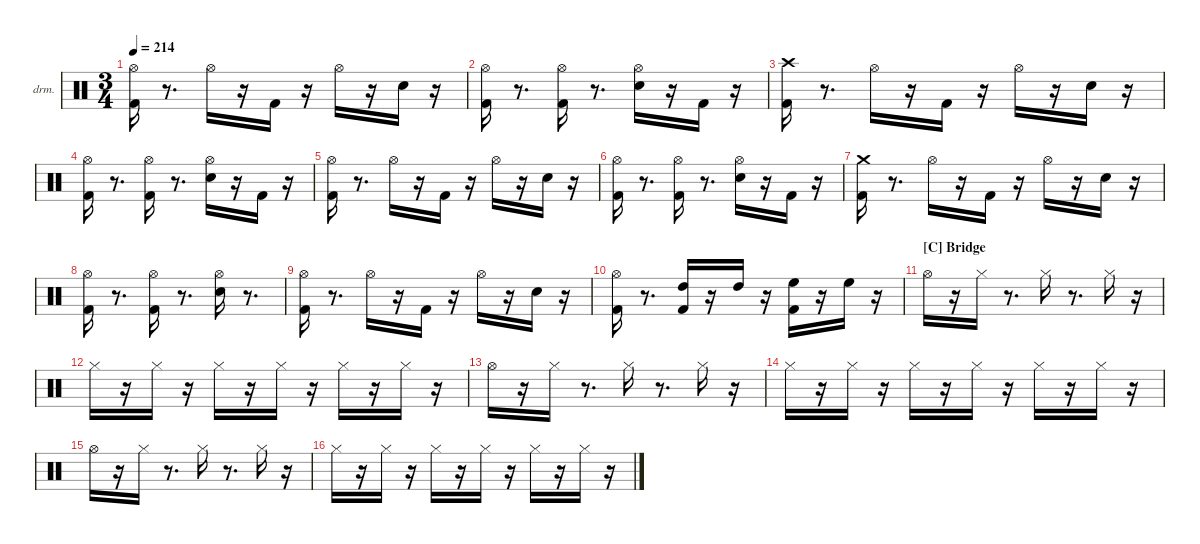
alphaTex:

\hideDynamics
\bracketExtendMode nobrackets
\firstSystemTrackNameOrientation horizontal
\otherSystemsTrackNameOrientation horizontal
\track ("EZdrummer 3" "drm.") {instrument percussion}
\staff {score}
\articulation defaults
\ts (3 4)
\tempo 214
\clef neutral
\ks aminor
("Kick (hit) 2" "Hi-Hat (open)"{acc #}).16{dy fff} r.8{d} "Hi-Hat (open)"{acc #}.16{dy mf} r.16 "Kick (hit) 2".16{dy ff} r.16 "Hi-Hat (open)"{acc #}.16{dy f} r.16 "Snare (hit) 2".16{dy ff} r.16 |
("Kick (hit) 2" "Hi-Hat (open)"{acc #}).16{dy fff} r.8{d} ("Kick (hit) 2" "Hi-Hat (open)"{acc #}).16{dy ff} r.8{d} ("Snare (hit) 2" "Hi-Hat (open)"{acc #}).16{dy f} r.16 "Kick (hit) 2".16{dy mp} r.16 |
("Kick (hit) 2" "Crash high (hit)"{acc #}).16{dy fff} r.8{d} "Hi-Hat (open)"{acc #}.16{dy mf} r.16 "Kick (hit) 2".16{dy ff} r.16 "Hi-Hat (open)"{acc #}.16{dy f} r.16 "Snare (hit) 2".16{dy ff} r.16 |
("Kick (hit) 2" "Hi-Hat (open)"{acc #}).16{dy fff} r.8{d} ("Kick (hit) 2" "Hi-Hat (open)"{acc #}).16{dy mf} r.8{d} ("Snare (hit) 2" "Hi-Hat (open)"{acc #}).16{dy f} r.16 "Kick (hit) 2".16{dy mp} r.16 |
("Kick (hit) 2" "Hi-Hat (open)"{acc #}).16{dy fff} r.8{d} "Hi-Hat (open)"{acc #}.16{dy mf} r.16 "Kick (hit) 2".16{dy ff} r.16 "Hi-Hat (open)"{acc #}.16{dy f} r.16 "Snare (hit) 2".16{dy ff} r.16 |
("Kick (hit) 2" "Hi-Hat (open)"{acc #}).16{dy fff} r.8{d} ("Kick (hit) 2" "Hi-Hat (open)"{acc #}).16{dy ff} r.8{d} ("Snare (hit) 2" "Hi-Hat (open)"{acc #}).16{dy f} r.16 "Kick (hit) 2".16{dy mp} r.16 |
("Kick (hit) 2" "Crash medium (hit)").16{dy fff} r.8{d} "Hi-Hat (open)"{acc #}.16{dy mf} r.16 "Kick (hit) 2".16{dy f} r.16 "Hi-Hat (open)"{acc #}.16 r.16 "Snare (hit) 2".16{dy ff} r.16 |
("Kick (hit) 2" "Hi-Hat (open)"{acc #}).16{dy fff} r.8{d} ("Kick (hit) 2" "Hi-Hat (open)"{acc #}).16{dy mf} r.8{d} ("Snare (hit) 2" "Hi-Hat (open)"{acc #}).16{dy f} r.8{d} |
("Kick (hit) 2" "Hi-Hat (open)"{acc #}).16{dy fff} r.8{d} "Hi-Hat (open)"{acc #}.16{dy mp} r.16 "Kick (hit) 2".16{dy f} r.16 "Hi-Hat (open)"{acc #}.16 r.16 "Snare (hit) 2".16{dy ff} r.16 |
("Kick (hit) 2" "Hi-Hat (open)"{acc #}).16{dy fff} r.8{d} ("Kick (hit) 2" "High Tom (hit)").16{dy mf} r.16 "High Tom (hit)".16{dy mp} r.16 ("Kick (hit) 2" "High Floor Tom (hit)").16{dy ff} r.16 "High Floor Tom (hit)".16{dy mp} r.16 |
\section ("C" "Bridge")
"Hi-Hat (open)"{acc #}.16{dy fff} r.16 "Hi-Hat (closed)"{acc #}.16{dy ff} r.8{d} "Hi-Hat (closed)"{acc #}.16{dy mp} r.8{d} "Hi-Hat (closed)"{acc #}.16{dy mf} r.16 |
"Hi-Hat (closed)"{acc #}.16{dy ff} r.16 "Hi-Hat (closed)"{acc #}.16{dy ppp} r.16 "Hi-Hat (closed)"{acc #}.16{dy mp} r.16 "Hi-Hat (closed)"{acc #}.16{dy ppp} r.16 "Hi-Hat (closed)"{acc #}.16{dy mp} r.16 "Hi-Hat (closed)"{acc #}.16{dy ppp} r.16 |
"Hi-Hat (open)"{acc #}.16{dy fff} r.16 "Hi-Hat (closed)"{acc #}.16{dy ff} r.8{d} "Hi-Hat (closed)"{acc #}.16{dy mp} r.8{d} "Hi-Hat (closed)"{acc #}.16{dy mf} r.16 |
"Hi-Hat (closed)"{acc #}.16{dy ff} r.16 "Hi-Hat (closed)"{acc #}.16{dy ppp} r.16 "Hi-Hat (closed)"{acc #}.16{dy mp} r.16 "Hi-Hat (closed)"{acc #}.16{dy ppp} r.16 "Hi-Hat (closed)"{acc #}.16{dy mp} r.16 "Hi-Hat (closed)"{acc #}.16{dy ppp} r.16 |
"Hi-Hat (open)"{acc #}.16{dy fff} r.16 "Hi-Hat (closed)"{acc #}.16{dy ff} r.8{d} "Hi-Hat (closed)"{acc #}.16{dy mp} r.8{d} "Hi-Hat (closed)"{acc #}.16{dy mf} r.16 |
"Hi-Hat (closed)"{acc #}.16{dy ff} r.16 "Hi-Hat (closed)"{acc #}.16{dy ppp} r.16 "Hi-Hat (closed)"{acc #}.16{dy mp} r.16 "Hi-Hat (closed)"{acc #}.16{dy ppp} r.16 "Hi-Hat (closed)"{acc #}.16{dy mp} r.16 "Hi-Hat (closed)"{acc #}.16{dy ppp} r.16
